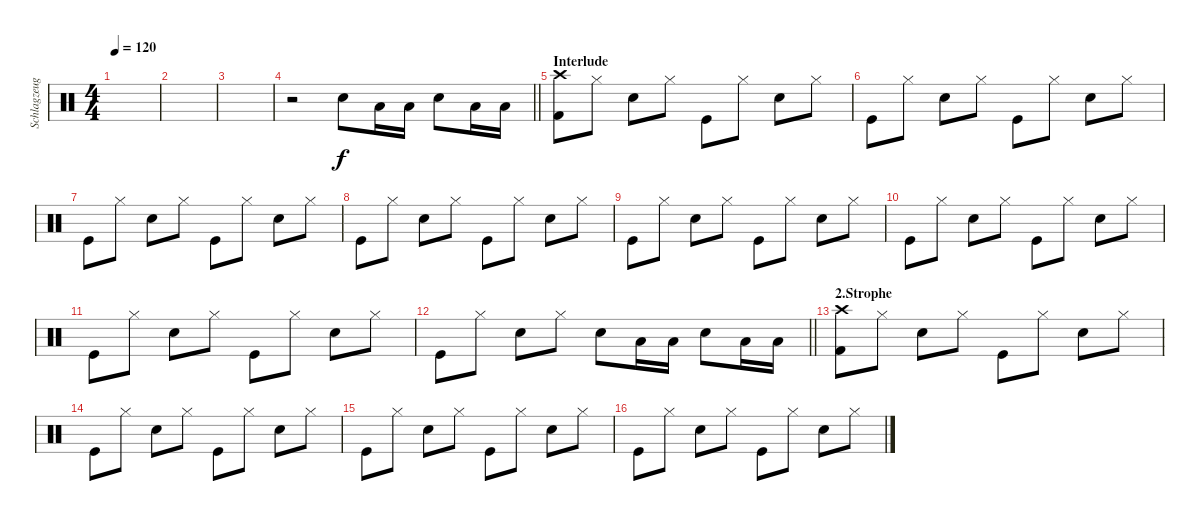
\track ("Schlagzeug" "Schlagzeug") {instrument percussion}
\staff {score}
\articulation defaults
\ts (4 4)
\tempo 120
\clef neutral
\ks c
|
|
|
\barLineRight lightlight
r.2 "Snare (hit) 2".8 "Low Tom (hit)".16 "Low Tom (hit)".16 "Snare (hit) 2".8 "Low Tom (hit)".16 "Low Tom (hit)".16 |
\section ("" "Interlude")
("Crash high (hit)" "Kick (hit) 2").8 "Hi-Hat (closed)".8 "Snare (hit) 2".8 "Hi-Hat (closed)".8 "Kick (hit)".8 "Hi-Hat (closed)".8 "Electric Snare (hit)".8 "Hi-Hat (closed)".8 |
"Kick (hit)".8 "Hi-Hat (closed)".8 "Electric Snare (hit)".8 "Hi-Hat (closed)".8 "Kick (hit)".8 "Hi-Hat (closed)".8 "Electric Snare (hit)".8 "Hi-Hat (closed)".8 |
"Kick (hit)".8 "Hi-Hat (closed)".8 "Electric Snare (hit)".8 "Hi-Hat (closed)".8 "Kick (hit)".8 "Hi-Hat (closed)".8 "Electric Snare (hit)".8 "Hi-Hat (closed)".8 |
"Kick (hit)".8 "Hi-Hat (closed)".8 "Electric Snare (hit)".8 "Hi-Hat (closed)".8 "Kick (hit)".8 "Hi-Hat (closed)".8 "Electric Snare (hit)".8 "Hi-Hat (closed)".8 |
"Kick (hit)".8 "Hi-Hat (closed)".8 "Electric Snare (hit)".8 "Hi-Hat (closed)".8 "Kick (hit)".8 "Hi-Hat (closed)".8 "Electric Snare (hit)".8 "Hi-Hat (closed)".8 |
"Kick (hit)".8 "Hi-Hat (closed)".8 "Electric Snare (hit)".8 "Hi-Hat (closed)".8 "Kick (hit)".8 "Hi-Hat (closed)".8 "Electric Snare (hit)".8 "Hi-Hat (closed)".8 |
"Kick (hit)".8 "Hi-Hat (closed)".8 "Electric Snare (hit)".8 "Hi-Hat (closed)".8 "Kick (hit)".8 "Hi-Hat (closed)".8 "Electric Snare (hit)".8 "Hi-Hat (closed)".8 |
\barLineRight lightlight "Kick (hit)".8 "Hi-Hat (closed)".8 "Electric Snare (hit)".8 "Hi-Hat (closed)".8 "Snare (hit) 2".8 "Low Tom (hit)".16 "Low Tom (hit)".16 "Snare (hit) 2".8 "Low Tom (hit)".16 "Low Tom (hit)".16
|
\section ("" "2.Strophe")
("Crash high (hit)" "Kick (hit) 2").8 "Hi-Hat (closed)".8 "Snare (hit) 2".8 "Hi-Hat (closed)".8 "Kick (hit)".8 "Hi-Hat (closed)".8 "Electric Snare (hit)".8 "Hi-Hat (closed)".8 |
"Kick (hit)".8 "Hi-Hat (closed)".8 "Electric Snare (hit)".8 "Hi-Hat (closed)".8 "Kick (hit)".8 "Hi-Hat (closed)".8 "Electric Snare (hit)".8 "Hi-Hat (closed)".8 |
"Kick (hit)".8 "Hi-Hat (closed)".8 "Electric Snare (hit)".8 "Hi-Hat (closed)".8 "Kick (hit)".8 "Hi-Hat (closed)".8 "Electric Snare (hit)".8 "Hi-Hat (closed)".8 |
"Kick (hit)".8 "Hi-Hat (closed)".8 "Electric Snare (hit)".8 "Hi-Hat (closed)".8 "Kick (hit)".8 "Hi-Hat (closed)".8 "Electric Snare (hit)".8 "Hi-Hat (closed)".8
